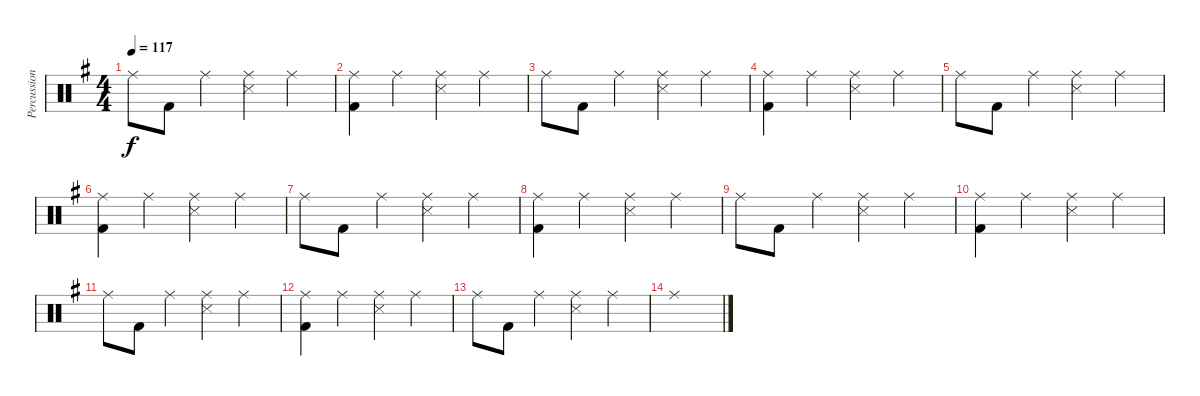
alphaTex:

\track ("Percussion" "Percussion") {instrument percussion}
\staff {score}
\articulation defaults
\ts (4 4)
\tempo 117
\clef neutral
\ks g "Ride (middle)".8{dy f} "Kick (hit) 2".8 "Ride (middle)".4
("Ride (middle)" "Snare (side stick) 3").4 "Ride (middle)".4 |
("Ride (middle)" "Kick (hit) 2").4 "Ride (middle)".4 ("Ride (middle)" "Snare (side stick) 3").4 "Ride (middle)".4 |
"Ride (middle)".8 "Kick (hit) 2".8 "Ride (middle)".4 ("Ride (middle)" "Snare (side stick) 3").4 "Ride (middle)".4 |
("Ride (middle)" "Kick (hit) 2").4 "Ride (middle)".4 ("Ride (middle)" "Snare (side stick) 3").4 "Ride (middle)".4 |
"Ride (middle)".8 "Kick (hit) 2".8 "Ride (middle)".4 ("Ride (middle)" "Snare (side stick) 3").4 "Ride (middle)".4 |
("Ride (middle)" "Kick (hit) 2").4 "Ride (middle)".4 ("Ride (middle)" "Snare (side stick) 3").4 "Ride (middle)".4 |
"Ride (middle)".8 "Kick (hit) 2".8 "Ride (middle)".4 ("Ride (middle)" "Snare (side stick) 3").4 "Ride (middle)".4 |
("Ride (middle)" "Kick (hit) 2").4 "Ride (middle)".4 ("Ride (middle)" "Snare (side stick) 3").4 "Ride (middle)".4 |
"Ride (middle)".8 "Kick (hit) 2".8 "Ride (middle)".4 ("Ride (middle)" "Snare (side stick) 3").4 "Ride (middle)".4 |
("Ride (middle)" "Kick (hit) 2").4 "Ride (middle)".4 ("Ride (middle)" "Snare (side stick) 3").4 "Ride (middle)".4 |
"Ride (middle)".8 "Kick (hit) 2".8 "Ride (middle)".4 ("Ride (middle)" "Snare (side stick) 3").4 "Ride (middle)".4 |
("Ride (middle)" "Kick (hit) 2").4 "Ride (middle)".4 ("Ride (middle)" "Snare (side stick) 3").4 "Ride (middle)".4 |
"Ride (middle)".8 "Kick (hit) 2".8 "Ride (middle)".4 ("Ride (middle)" "Snare (side stick) 3").4 "Ride (middle)".4 |
"Ride (middle)".1
